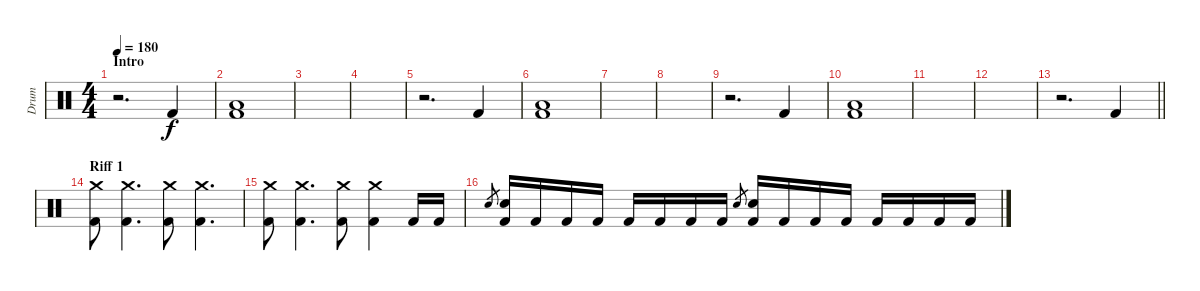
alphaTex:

\track ("Drum" "Drum") {instrument percussion}
\staff
\articulation defaults
\ts (4 4)
\section ("" "Intro")
\tempo 180
\clef neutral
\ks c
r.2{d dy f} "Kick (hit) 2".4 |
("Low Floor Tom (hit)" "Kick (hit) 2").1 |
|
|
r.2{d} "Kick (hit) 2".4 |
("Low Floor Tom (hit)" "Kick (hit) 2").1 |
|
|
r.2{d} "Kick (hit) 2".4 |
("Low Floor Tom (hit)" "Kick (hit) 2").1 |
|
|
\barLineRight lightlight
r.2{d} "Kick (hit) 2".4 |
\section ("" "Riff 1")
("Crash medium (hit)" "Kick (hit) 2").8 ("Crash medium (hit)" "Kick (hit) 2").4{d} ("Crash medium (hit)" "Kick (hit) 2").8 ("Crash medium (hit)" "Kick (hit) 2").4{d} |
("Crash medium (hit)" "Kick (hit) 2").8 ("Crash medium (hit)" "Kick (hit) 2").4{d} ("Crash medium (hit)" "Kick (hit) 2").8 ("Crash medium (hit)" "Kick (hit) 2").4 "Kick (hit) 2".16 "Kick (hit) 2".16 |
"Electric Snare (hit)".8{gr} ("Electric Snare (hit)" "Kick (hit) 2").16 "Kick (hit) 2".16 "Kick (hit) 2".16 "Kick (hit) 2".16 "Kick (hit) 2".16 "Kick (hit) 2".16 "Kick (hit) 2".16 "Kick (hit) 2".16 "Electric Snare (hit)".8{gr} ("Electric Snare (hit)" "Kick (hit) 2").16 "Kick (hit) 2".16 "Kick (hit) 2".16 "Kick (hit) 2".16 "Kick (hit) 2".16 "Kick (hit) 2".16 "Kick (hit) 2".16 "Kick (hit) 2".16
